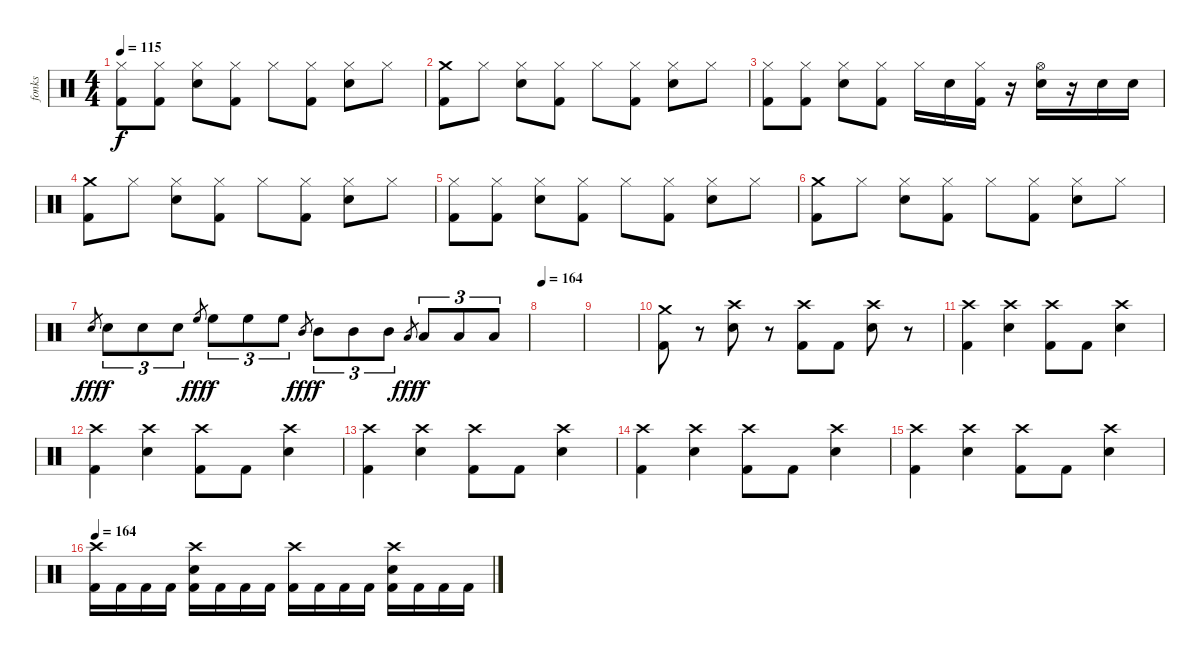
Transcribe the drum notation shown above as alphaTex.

\track ("fonks" "fonks") {instrument percussion}
\staff {score}
\articulation defaults
\ts (4 4)
\tempo 115
\clef neutral
\ks c
("Hi-Hat (closed)" "Kick (hit) 2").8{dy f} ("Hi-Hat (closed)" "Kick (hit) 2").8 ("Hi-Hat (closed)" "Snare (hit) 2").8 ("Hi-Hat (closed)" "Kick (hit) 2").8 "Hi-Hat (closed)".8 ("Hi-Hat (closed)" "Kick (hit) 2").8 ("Hi-Hat (closed)" "Snare (hit) 2").8 "Hi-Hat (closed)".8 |
("Crash medium (hit)" "Kick (hit) 2").8 "Hi-Hat (closed)".8 ("Hi-Hat (closed)" "Snare (hit) 2").8 ("Hi-Hat (closed)" "Kick (hit) 2").8 "Hi-Hat (closed)".8 ("Hi-Hat (closed)" "Kick (hit) 2").8 ("Hi-Hat (closed)" "Snare (hit) 2").8 "Hi-Hat (closed)".8 |
("Hi-Hat (closed)" "Kick (hit) 2").8 ("Hi-Hat (closed)" "Kick (hit) 2").8 ("Hi-Hat (closed)" "Snare (hit) 2").8 ("Hi-Hat (closed)" "Kick (hit) 2").8 "Hi-Hat (closed)".16 "Snare (hit) 2".16 ("Hi-Hat (closed)" "Kick (hit) 2").16 r.16 ("Hi-Hat (open)" "Snare (hit) 2").16 r.16 "Snare (hit) 2".16 "Snare (hit) 2".16 |
("Crash medium (hit)" "Kick (hit) 2").8 "Hi-Hat (closed)".8 ("Hi-Hat (closed)" "Snare (hit) 2").8 ("Hi-Hat (closed)" "Kick (hit) 2").8 "Hi-Hat (closed)".8 ("Hi-Hat (closed)" "Kick (hit) 2").8 ("Hi-Hat (closed)" "Snare (hit) 2").8 "Hi-Hat (closed)".8 |
("Hi-Hat (closed)" "Kick (hit) 2").8 ("Hi-Hat (closed)" "Kick (hit) 2").8 ("Hi-Hat (closed)" "Snare (hit) 2").8 ("Hi-Hat (closed)" "Kick (hit) 2").8 "Hi-Hat (closed)".8 ("Hi-Hat (closed)" "Kick (hit) 2").8 ("Hi-Hat (closed)" "Snare (hit) 2").8 "Hi-Hat (closed)".8 |
("Crash medium (hit)" "Kick (hit) 2").8 "Hi-Hat (closed)".8 ("Hi-Hat (closed)" "Snare (hit) 2").8 ("Hi-Hat (closed)" "Kick (hit) 2").8 "Hi-Hat (closed)".8 ("Hi-Hat (closed)" "Kick (hit) 2").8 ("Hi-Hat (closed)" "Snare (hit) 2").8 "Hi-Hat (closed)".8 |
"Snare (hit) 2".8{gr dy fff} "Snare (hit) 2".8{tu (3 2) dy f} "Snare (hit) 2".8{tu (3 2)} "Snare (hit) 2".8{tu (3 2)} "High Floor Tom (hit)".8{gr dy fff} "High Floor Tom (hit)".8{tu (3 2) dy f} "High Floor Tom (hit)".8{tu (3 2)} "High Floor Tom (hit)".8{tu (3 2)} "Mid Tom (hit)".8{gr dy fff} "Mid Tom (hit)".8{tu (3 2) dy f} "Mid Tom (hit)".8{tu (3 2)} "Mid Tom (hit)".8{tu (3 2)} "Low Floor Tom (hit)".8{gr dy fff} "Low Floor Tom (hit)".8{tu (3 2) dy f} "Low Floor Tom (hit)".8{tu (3 2)} "Low Floor Tom (hit)".8{tu (3 2)} |
\tempo 164
|
|
("Crash medium (hit)" "Kick (hit) 2").8 r.8 ("Crash high (hit)" "Snare (hit) 2").8 r.8 ("Crash high (hit)" "Kick (hit) 2").8 "Kick (hit) 2".8 ("Crash high (hit)" "Snare (hit) 2").8 r.8 |
("Crash high (hit)" "Kick (hit) 2").4 ("Crash high (hit)" "Snare (hit) 2").4 ("Crash high (hit)" "Kick (hit) 2").8 "Kick (hit) 2".8 ("Crash high (hit)" "Snare (hit) 2").4 |
("Crash high (hit)" "Kick (hit) 2").4 ("Crash high (hit)" "Snare (hit) 2").4 ("Crash high (hit)" "Kick (hit) 2").8 "Kick (hit) 2".8 ("Crash high (hit)" "Snare (hit) 2").4 |
("Crash high (hit)" "Kick (hit) 2").4 ("Crash high (hit)" "Snare (hit) 2").4 ("Crash high (hit)" "Kick (hit) 2").8 "Kick (hit) 2".8 ("Crash high (hit)" "Snare (hit) 2").4 |
("Crash high (hit)" "Kick (hit) 2").4 ("Crash high (hit)" "Snare (hit) 2").4 ("Crash high (hit)" "Kick (hit) 2").8 "Kick (hit) 2".8 ("Crash high (hit)" "Snare (hit) 2").4 |
("Crash high (hit)" "Kick (hit) 2").4 ("Crash high (hit)" "Snare (hit) 2").4 ("Crash high (hit)" "Kick (hit) 2").8 "Kick (hit) 2".8 ("Crash high (hit)" "Snare (hit) 2").4 |
\tempo 164
("Crash high (hit)" "Kick (hit) 2").16 "Kick (hit) 2".16 "Kick (hit) 2".16 "Kick (hit) 2".16 ("Crash high (hit)" "Snare (hit) 2" "Kick (hit) 2").16 "Kick (hit) 2".16 "Kick (hit) 2".16 "Kick (hit) 2".16 ("Crash high (hit)" "Kick (hit) 2").16 "Kick (hit) 2".16 "Kick (hit) 2".16 "Kick (hit) 2".16 ("Crash high (hit)" "Snare (hit) 2" "Kick (hit) 2").16 "Kick (hit) 2".16 "Kick (hit) 2".16 "Kick (hit) 2".16
